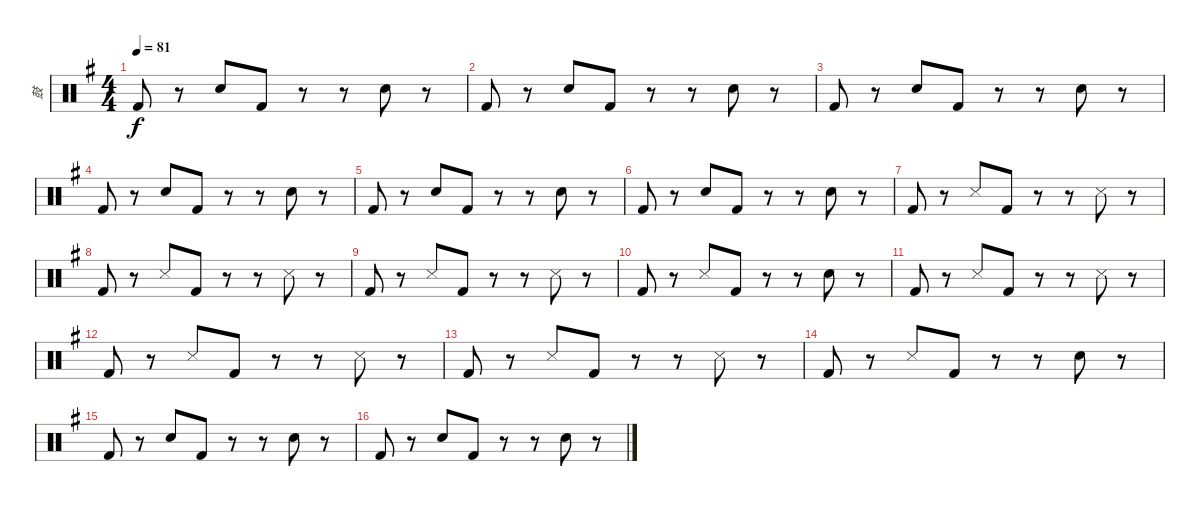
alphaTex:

\track ("鼓" "鼓") {instrument percussion}
\staff {score}
\articulation defaults
\ts (4 4)
\tempo 81
\clef neutral
\ks g "Kick (hit) 2".8{dy f}
r.8 "Electric Snare (hit)".8 "Kick (hit) 2".8 r.8 r.8 "Electric Snare (hit)".8 r.8 |
"Kick (hit) 2".8 r.8 "Electric Snare (hit)".8 "Kick (hit) 2".8 r.8 r.8 "Electric Snare (hit)".8 r.8 |
"Kick (hit) 2".8 r.8 "Electric Snare (hit)".8 "Kick (hit) 2".8 r.8 r.8 "Electric Snare (hit)".8 r.8 |
"Kick (hit) 2".8 r.8 "Electric Snare (hit)".8 "Kick (hit) 2".8 r.8 r.8 "Electric Snare (hit)".8 r.8 |
"Kick (hit) 2".8 r.8 "Electric Snare (hit)".8 "Kick (hit) 2".8 r.8 r.8 "Electric Snare (hit)".8 r.8 |
"Kick (hit) 2".8 r.8 "Electric Snare (hit)".8 "Kick (hit) 2".8 r.8 r.8 "Electric Snare (hit)".8 r.8 |
"Kick (hit) 2".8 r.8 "Metronome (hit)".8 "Kick (hit) 2".8 r.8 r.8 "Metronome (hit)".8 r.8 |
"Kick (hit) 2".8 r.8 "Metronome (hit)".8 "Kick (hit) 2".8 r.8 r.8 "Metronome (hit)".8 r.8 |
"Kick (hit) 2".8 r.8 "Metronome (hit)".8 "Kick (hit) 2".8 r.8 r.8 "Metronome (hit)".8 r.8 |
"Kick (hit) 2".8 r.8 "Metronome (hit)".8 "Kick (hit) 2".8 r.8 r.8 "Electric Snare (hit)".8 r.8 |
"Kick (hit) 2".8 r.8 "Metronome (hit)".8 "Kick (hit) 2".8 r.8 r.8 "Metronome (hit)".8 r.8 |
"Kick (hit) 2".8 r.8 "Metronome (hit)".8 "Kick (hit) 2".8 r.8 r.8 "Metronome (hit)".8 r.8 |
"Kick (hit) 2".8 r.8 "Metronome (hit)".8 "Kick (hit) 2".8 r.8 r.8 "Metronome (hit)".8 r.8 |
"Kick (hit) 2".8 r.8 "Metronome (hit)".8 "Kick (hit) 2".8 r.8 r.8 "Electric Snare (hit)".8 r.8 |
"Kick (hit) 2".8 r.8 "Electric Snare (hit)".8 "Kick (hit) 2".8 r.8 r.8 "Electric Snare (hit)".8 r.8 |
"Kick (hit) 2".8 r.8 "Electric Snare (hit)".8 "Kick (hit) 2".8 r.8 r.8 "Electric Snare (hit)".8 r.8
